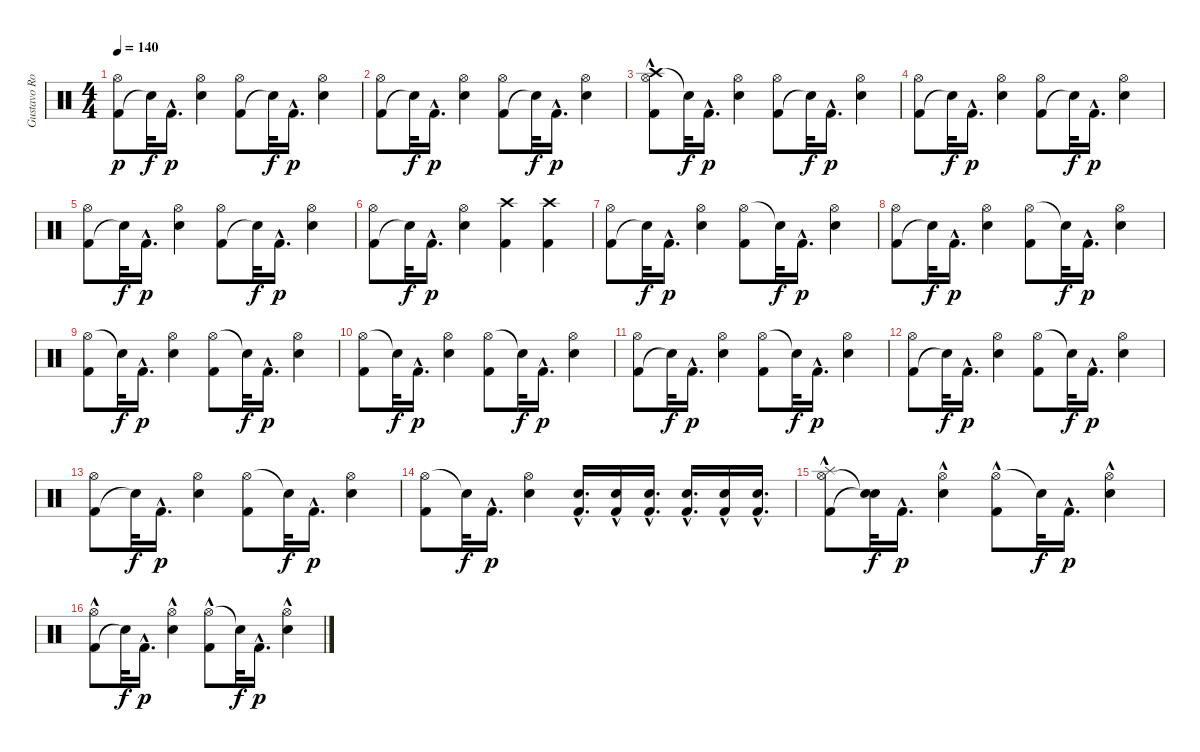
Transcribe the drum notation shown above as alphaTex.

\track ("Gustavo Rowek" "Gustavo Ro") {instrument percussion}
\staff {score}
\articulation defaults
\ts (4 4)
\tempo 140
\clef neutral
\ks c
("Kick (hit) 2" "Hi-Hat (open)").8{dy p} "Snare (hit)"{t}.32{dy f} "Kick (hit) 2"{hac}.16{d dy p} ("Snare (hit) 2" "Hi-Hat (open)").4 ("Kick (hit) 2" "Hi-Hat (open)").8 "Snare (hit)"{t}.32{dy f} "Kick (hit) 2"{hac}.16{d dy p} ("Hi-Hat (open)" "Snare (hit) 2").4 |
("Kick (hit) 2" "Hi-Hat (open)").8 "Snare (hit)"{t}.32{dy f} "Kick (hit) 2"{hac}.16{d dy p} ("Snare (hit) 2" "Hi-Hat (open)").4 ("Kick (hit) 2" "Hi-Hat (open)").8 "Snare (hit)"{t}.32{dy f} "Kick (hit) 2"{hac}.16{d dy p} ("Hi-Hat (open)" "Snare (hit) 2").4 |
("Crash high (hit)"{hac} "Hi-Hat (open)" "Kick (hit) 2").8 "Snare (hit)"{t}.32{dy f} "Kick (hit) 2"{hac}.16{d dy p} ("Hi-Hat (open)" "Snare (hit) 2").4 ("Kick (hit) 2" "Hi-Hat (open)").8 "Snare (hit)"{t}.32{dy f} "Kick (hit) 2"{hac}.16{d dy p} ("Hi-Hat (open)" "Snare (hit) 2").4 |
("Kick (hit) 2" "Hi-Hat (open)").8 "Snare (hit)"{t}.32{dy f} "Kick (hit) 2"{hac}.16{d dy p} ("Snare (hit) 2" "Hi-Hat (open)").4 ("Kick (hit) 2" "Hi-Hat (open)").8 "Snare (hit)"{t}.32{dy f} "Kick (hit) 2"{hac}.16{d dy p} ("Hi-Hat (open)" "Snare (hit) 2").4 |
("Kick (hit) 2" "Hi-Hat (open)").8 "Snare (hit)"{t}.32{dy f} "Kick (hit) 2"{hac}.16{d dy p} ("Snare (hit) 2" "Hi-Hat (open)").4 ("Kick (hit) 2" "Hi-Hat (open)").8 "Snare (hit)"{t}.32{dy f} "Kick (hit) 2"{hac}.16{d dy p} ("Hi-Hat (open)" "Snare (hit) 2").4 |
("Kick (hit) 2" "Hi-Hat (open)").8 "Snare (hit)"{t}.32{dy f} "Kick (hit) 2"{hac}.16{d dy p} ("Snare (hit) 2" "Hi-Hat (open)").4 ("Crash high (hit)" "Kick (hit) 2").4 ("Crash high (hit)" "Kick (hit) 2").4 |
("Kick (hit) 2" "Hi-Hat (open)").8 "Snare (hit)"{t}.32{dy f} "Kick (hit) 2"{hac}.16{d dy p} ("Snare (hit) 2" "Hi-Hat (open)").4 ("Hi-Hat (open)" "Kick (hit) 2").8 "Snare (hit)"{t}.32{dy f} "Kick (hit) 2"{hac}.16{d dy p} ("Snare (hit) 2" "Hi-Hat (open)").4 |
("Kick (hit) 2" "Hi-Hat (open)").8 "Snare (hit)"{t}.32{dy f} "Kick (hit) 2"{hac}.16{d dy p} ("Hi-Hat (open)" "Snare (hit) 2").4 ("Hi-Hat (open)" "Kick (hit) 2").8 "Snare (hit)"{t}.32{dy f} "Kick (hit) 2"{hac}.16{d dy p} ("Hi-Hat (open)" "Snare (hit) 2").4 |
("Hi-Hat (open)" "Kick (hit) 2").8 "Snare (hit)"{t}.32{dy f} "Kick (hit) 2"{hac}.16{d dy p} ("Hi-Hat (open)" "Snare (hit) 2").4 ("Hi-Hat (open)" "Kick (hit) 2").8 "Snare (hit)"{t}.32{dy f} "Kick (hit) 2"{hac}.16{d dy p} ("Hi-Hat (open)" "Snare (hit) 2").4 |
("Hi-Hat (open)" "Kick (hit) 2").8 "Snare (hit)"{t}.32{dy f} "Kick (hit) 2"{hac}.16{d dy p} ("Hi-Hat (open)" "Snare (hit) 2").4 ("Hi-Hat (open)" "Kick (hit) 2").8 "Snare (hit)"{t}.32{dy f} "Kick (hit) 2"{hac}.16{d dy p} ("Hi-Hat (open)" "Snare (hit) 2").4 |
("Kick (hit) 2" "Hi-Hat (open)").8 "Snare (hit)"{t}.32{dy f} "Kick (hit) 2"{hac}.16{d dy p} ("Hi-Hat (open)" "Snare (hit) 2").4 ("Hi-Hat (open)" "Kick (hit) 2").8 "Snare (hit)"{t}.32{dy f} "Kick (hit) 2"{hac}.16{d dy p} ("Hi-Hat (open)" "Snare (hit) 2").4 |
("Kick (hit) 2" "Hi-Hat (open)").8 "Snare (hit)"{t}.32{dy f} "Kick (hit) 2"{hac}.16{d dy p} ("Hi-Hat (open)" "Snare (hit) 2").4 ("Hi-Hat (open)" "Kick (hit) 2").8 "Snare (hit)"{t}.32{dy f} "Kick (hit) 2"{hac}.16{d dy p} ("Hi-Hat (open)" "Snare (hit) 2").4 |
("Kick (hit) 2" "Hi-Hat (open)").8 "Snare (hit)"{t}.32{dy f} "Kick (hit) 2"{hac}.16{d dy p} ("Hi-Hat (open)" "Snare (hit) 2").4 ("Hi-Hat (open)" "Kick (hit) 2").8 "Snare (hit)"{t}.32{dy f} "Kick (hit) 2"{hac}.16{d dy p} ("Hi-Hat (open)" "Snare (hit) 2").4 |
("Hi-Hat (open)" "Kick (hit) 2").8 "Snare (hit)"{t}.32{dy f} "Kick (hit) 2"{hac}.16{d dy p} ("Hi-Hat (open)" "Snare (hit) 2").4 ("Snare (hit) 2"{hac} "Kick (hit) 2"{hac}).16{d} ("Kick (hit) 2"{hac} "Snare (hit) 2"{hac}).16 ("Kick (hit) 2"{hac} "Snare (hit) 2"{hac}).16{d} ("Kick (hit) 2"{hac} "Snare (hit) 2"{hac}).16{d} ("Kick (hit) 2"{hac} "Snare (hit) 2"{hac}).16 ("Kick (hit) 2"{hac} "Snare (hit) 2"{hac}).16{d} |
("Hi-Hat (open)" "Kick (hit) 2"{hac} "Splash (hit)").8 ("Snare (hit)"{t} "Snare (hit)"{t}).32{dy f} "Kick (hit) 2"{hac}.16{d dy p} ("Hi-Hat (open)" "Snare (hit) 2"{hac}).4 ("Hi-Hat (open)" "Kick (hit) 2"{hac}).8 "Snare (hit)"{t}.32{dy f} "Kick (hit) 2"{hac}.16{d dy p} ("Hi-Hat (open)" "Snare (hit) 2"{hac}).4 |
("Kick (hit) 2"{hac} "Hi-Hat (open)").8 "Snare (hit)"{t}.32{dy f} "Kick (hit) 2"{hac}.16{d dy p} ("Snare (hit) 2"{hac} "Hi-Hat (open)").4 ("Hi-Hat (open)" "Kick (hit) 2"{hac}).8 "Snare (hit)"{t}.32{dy f} "Kick (hit) 2"{hac}.16{d dy p} ("Snare (hit) 2"{hac} "Hi-Hat (open)").4
